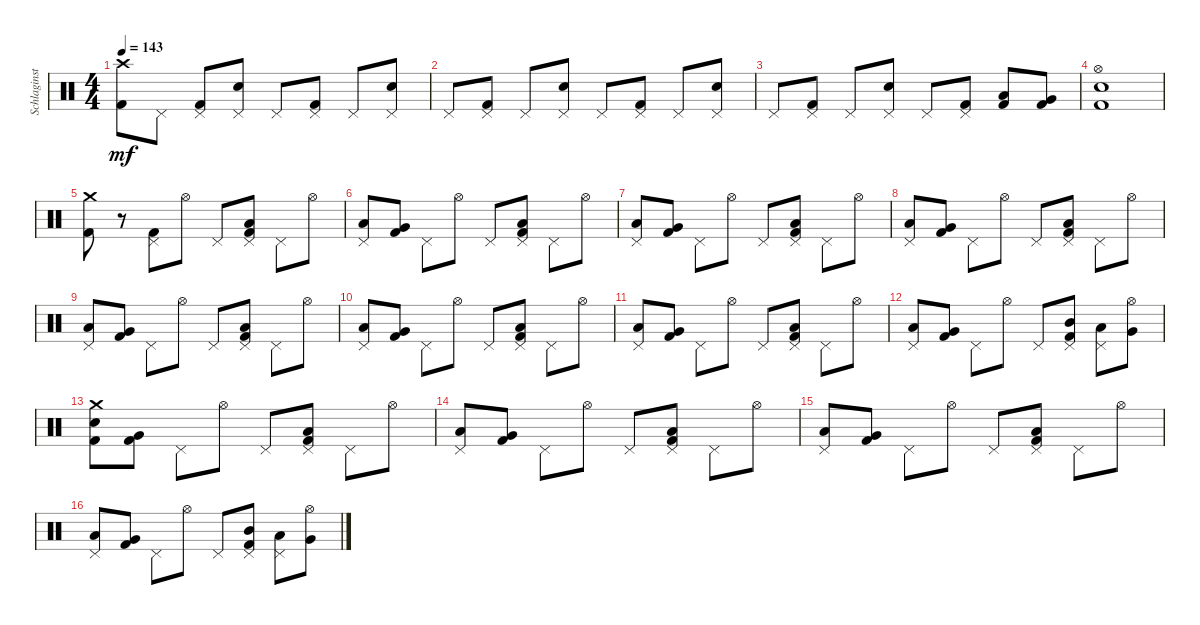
\track ("Schlaginstrumente - Auswahl" "Schlaginst") {instrument percussion}
\staff {score}
\articulation defaults
\ts (4 4)
\tempo 143
\clef neutral
\ks c
("Crash high (hit)" "Kick (hit) 2").8{dy mf} "Pedal Hi-Hat (hit)".8 ("Pedal Hi-Hat (hit)" "Kick (hit) 2").8 ("Pedal Hi-Hat (hit)" "Electric Snare (hit)").8 "Pedal Hi-Hat (hit)".8 ("Pedal Hi-Hat (hit)" "Kick (hit) 2").8 "Pedal Hi-Hat (hit)".8 ("Pedal Hi-Hat (hit)" "Electric Snare (hit)").8 |
"Pedal Hi-Hat (hit)".8 ("Pedal Hi-Hat (hit)" "Kick (hit) 2").8 "Pedal Hi-Hat (hit)".8 ("Pedal Hi-Hat (hit)" "Electric Snare (hit)").8 "Pedal Hi-Hat (hit)".8 ("Pedal Hi-Hat (hit)" "Kick (hit) 2").8 "Pedal Hi-Hat (hit)".8 ("Pedal Hi-Hat (hit)" "Electric Snare (hit)").8 |
"Pedal Hi-Hat (hit)".8 ("Pedal Hi-Hat (hit)" "Kick (hit) 2").8 "Pedal Hi-Hat (hit)".8 ("Pedal Hi-Hat (hit)" "Electric Snare (hit)").8 "Pedal Hi-Hat (hit)".8 ("Pedal Hi-Hat (hit)" "Kick (hit) 2").8 ("Low Tom (hit)" "Kick (hit) 2").8 ("Very Low Tom (hit)" "Kick (hit) 2").8 |
("Hi-Hat (open)" "Electric Snare (hit)" "Kick (hit) 2").1 |
("Crash medium (hit)" "Kick (hit) 2").8 r.8 ("Pedal Hi-Hat (hit)" "Kick (hit) 2").8 "Hi-Hat (open)".8 "Pedal Hi-Hat (hit)".8 ("Pedal Hi-Hat (hit)" "Kick (hit) 2" "Low Tom (hit)").8 "Pedal Hi-Hat (hit)".8 "Hi-Hat (open)".8 |
("Pedal Hi-Hat (hit)" "Low Tom (hit)").8 ("Very Low Tom (hit)" "Kick (hit) 2").8 "Pedal Hi-Hat (hit)".8 "Hi-Hat (open)".8 "Pedal Hi-Hat (hit)".8 ("Pedal Hi-Hat (hit)" "Kick (hit) 2" "Low Tom (hit)").8 "Pedal Hi-Hat (hit)".8 "Hi-Hat (open)".8 |
("Pedal Hi-Hat (hit)" "Low Tom (hit)").8 ("Very Low Tom (hit)" "Kick (hit) 2").8 "Pedal Hi-Hat (hit)".8 "Hi-Hat (open)".8 "Pedal Hi-Hat (hit)".8 ("Pedal Hi-Hat (hit)" "Kick (hit) 2" "Low Tom (hit)").8 "Pedal Hi-Hat (hit)".8 "Hi-Hat (open)".8 |
("Pedal Hi-Hat (hit)" "Low Tom (hit)").8 ("Very Low Tom (hit)" "Kick (hit) 2").8 "Pedal Hi-Hat (hit)".8 "Hi-Hat (open)".8 "Pedal Hi-Hat (hit)".8 ("Pedal Hi-Hat (hit)" "Kick (hit) 2" "Low Tom (hit)").8 "Pedal Hi-Hat (hit)".8 "Hi-Hat (open)".8 |
("Pedal Hi-Hat (hit)" "Low Tom (hit)").8 ("Very Low Tom (hit)" "Kick (hit) 2").8 "Pedal Hi-Hat (hit)".8 "Hi-Hat (open)".8 "Pedal Hi-Hat (hit)".8 ("Pedal Hi-Hat (hit)" "Kick (hit) 2" "Low Tom (hit)").8 "Pedal Hi-Hat (hit)".8 "Hi-Hat (open)".8 |
("Pedal Hi-Hat (hit)" "Low Tom (hit)").8 ("Very Low Tom (hit)" "Kick (hit) 2").8 "Pedal Hi-Hat (hit)".8 "Hi-Hat (open)".8 "Pedal Hi-Hat (hit)".8 ("Pedal Hi-Hat (hit)" "Kick (hit) 2" "Low Tom (hit)").8 "Pedal Hi-Hat (hit)".8 "Hi-Hat (open)".8 |
("Pedal Hi-Hat (hit)" "Low Tom (hit)").8 ("Very Low Tom (hit)" "Kick (hit) 2").8 "Pedal Hi-Hat (hit)".8 "Hi-Hat (open)".8 "Pedal Hi-Hat (hit)".8 ("Pedal Hi-Hat (hit)" "Kick (hit) 2" "Low Tom (hit)").8 "Pedal Hi-Hat (hit)".8 "Hi-Hat (open)".8 |
("Pedal Hi-Hat (hit)" "Low Tom (hit)").8 ("Very Low Tom (hit)" "Kick (hit) 2").8 "Pedal Hi-Hat (hit)".8 "Hi-Hat (open)".8 "Pedal Hi-Hat (hit)".8 ("Pedal Hi-Hat (hit)" "Kick (hit) 2" "Mid Tom (hit)").8 ("Pedal Hi-Hat (hit)" "Low Tom (hit)").8 ("Hi-Hat (open)" "Very Low Tom (hit)").8 |
("Crash medium (hit)" "Electric Snare (hit)" "Kick (hit) 2").8 ("Very Low Tom (hit)" "Kick (hit) 2").8 "Pedal Hi-Hat (hit)".8 "Hi-Hat (open)".8 "Pedal Hi-Hat (hit)".8 ("Pedal Hi-Hat (hit)" "Kick (hit) 2" "Low Tom (hit)").8 "Pedal Hi-Hat (hit)".8 "Hi-Hat (open)".8 |
("Pedal Hi-Hat (hit)" "Low Tom (hit)").8 ("Very Low Tom (hit)" "Kick (hit) 2").8 "Pedal Hi-Hat (hit)".8 "Hi-Hat (open)".8 "Pedal Hi-Hat (hit)".8 ("Pedal Hi-Hat (hit)" "Kick (hit) 2" "Low Tom (hit)").8 "Pedal Hi-Hat (hit)".8 "Hi-Hat (open)".8 |
("Pedal Hi-Hat (hit)" "Low Tom (hit)").8 ("Very Low Tom (hit)" "Kick (hit) 2").8 "Pedal Hi-Hat (hit)".8 "Hi-Hat (open)".8 "Pedal Hi-Hat (hit)".8 ("Pedal Hi-Hat (hit)" "Kick (hit) 2" "Low Tom (hit)").8 "Pedal Hi-Hat (hit)".8 "Hi-Hat (open)".8 |
("Pedal Hi-Hat (hit)" "Low Tom (hit)").8 ("Very Low Tom (hit)" "Kick (hit) 2").8 "Pedal Hi-Hat (hit)".8 "Hi-Hat (open)".8 "Pedal Hi-Hat (hit)".8 ("Pedal Hi-Hat (hit)" "Kick (hit) 2" "Mid Tom (hit)").8 ("Pedal Hi-Hat (hit)" "Low Tom (hit)").8 ("Hi-Hat (open)" "Very Low Tom (hit)").8
